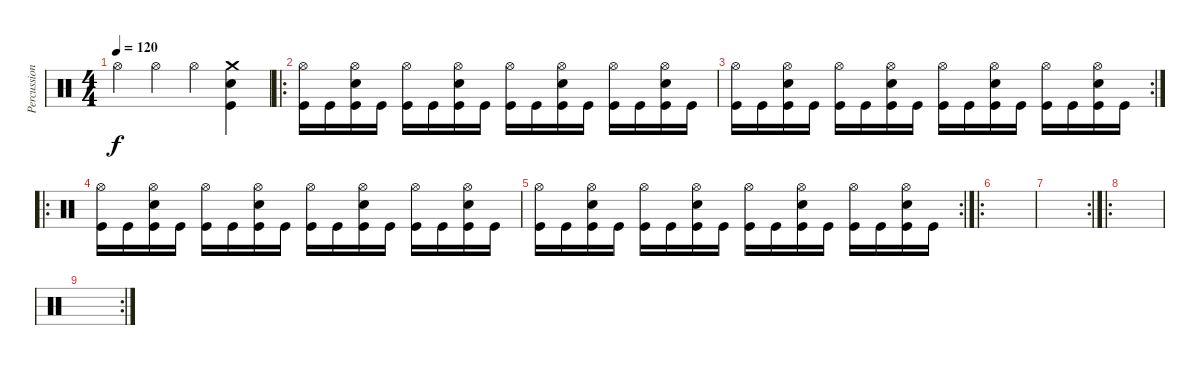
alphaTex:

\track ("Percussion" "Percussion") {instrument percussion}
\staff {score}
\articulation defaults
\ts (4 4)
\tempo 120
\clef neutral
\ks c "Hi-Hat (open)".4{dy f} "Hi-Hat (open)".4 "Hi-Hat (open)".4
("Crash medium (hit)" "Snare (hit) 2" "Kick (hit)").4 |
\ro
("Hi-Hat (open)" "Kick (hit)").16 "Kick (hit)".16 ("Hi-Hat (open)" "Snare (hit) 2" "Kick (hit)").16 "Kick (hit)".16 ("Hi-Hat (open)" "Kick (hit)").16 "Kick (hit)".16 ("Hi-Hat (open)" "Snare (hit) 2" "Kick (hit)").16 "Kick (hit)".16 ("Hi-Hat (open)" "Kick (hit)").16 "Kick (hit)".16 ("Hi-Hat (open)" "Snare (hit) 2" "Kick (hit)").16 "Kick (hit)".16 ("Hi-Hat (open)" "Kick (hit)").16 "Kick (hit)".16 ("Hi-Hat (open)" "Snare (hit) 2" "Kick (hit)").16 "Kick (hit)".16 |
\rc 2
("Hi-Hat (open)" "Kick (hit)").16 "Kick (hit)".16 ("Hi-Hat (open)" "Snare (hit) 2" "Kick (hit)").16 "Kick (hit)".16 ("Hi-Hat (open)" "Kick (hit)").16 "Kick (hit)".16 ("Hi-Hat (open)" "Snare (hit) 2" "Kick (hit)").16 "Kick (hit)".16 ("Hi-Hat (open)" "Kick (hit)").16 "Kick (hit)".16 ("Hi-Hat (open)" "Snare (hit) 2" "Kick (hit)").16 "Kick (hit)".16 ("Hi-Hat (open)" "Kick (hit)").16 "Kick (hit)".16 ("Hi-Hat (open)" "Snare (hit) 2" "Kick (hit)").16 "Kick (hit)".16 |
\ro
("Hi-Hat (open)" "Kick (hit)").16 "Kick (hit)".16 ("Hi-Hat (open)" "Snare (hit) 2" "Kick (hit)").16 "Kick (hit)".16 ("Hi-Hat (open)" "Kick (hit)").16 "Kick (hit)".16 ("Hi-Hat (open)" "Snare (hit) 2" "Kick (hit)").16 "Kick (hit)".16 ("Hi-Hat (open)" "Kick (hit)").16 "Kick (hit)".16 ("Hi-Hat (open)" "Snare (hit) 2" "Kick (hit)").16 "Kick (hit)".16 ("Hi-Hat (open)" "Kick (hit)").16 "Kick (hit)".16 ("Hi-Hat (open)" "Snare (hit) 2" "Kick (hit)").16 "Kick (hit)".16 |
\rc 2
("Hi-Hat (open)" "Kick (hit)").16 "Kick (hit)".16 ("Hi-Hat (open)" "Snare (hit) 2" "Kick (hit)").16 "Kick (hit)".16 ("Hi-Hat (open)" "Kick (hit)").16 "Kick (hit)".16 ("Hi-Hat (open)" "Snare (hit) 2" "Kick (hit)").16 "Kick (hit)".16 ("Hi-Hat (open)" "Kick (hit)").16 "Kick (hit)".16 ("Hi-Hat (open)" "Snare (hit) 2" "Kick (hit)").16 "Kick (hit)".16 ("Hi-Hat (open)" "Kick (hit)").16 "Kick (hit)".16 ("Hi-Hat (open)" "Snare (hit) 2" "Kick (hit)").16 "Kick (hit)".16 |
\ro
|
\rc 2
|
\ro
|
\rc 2
